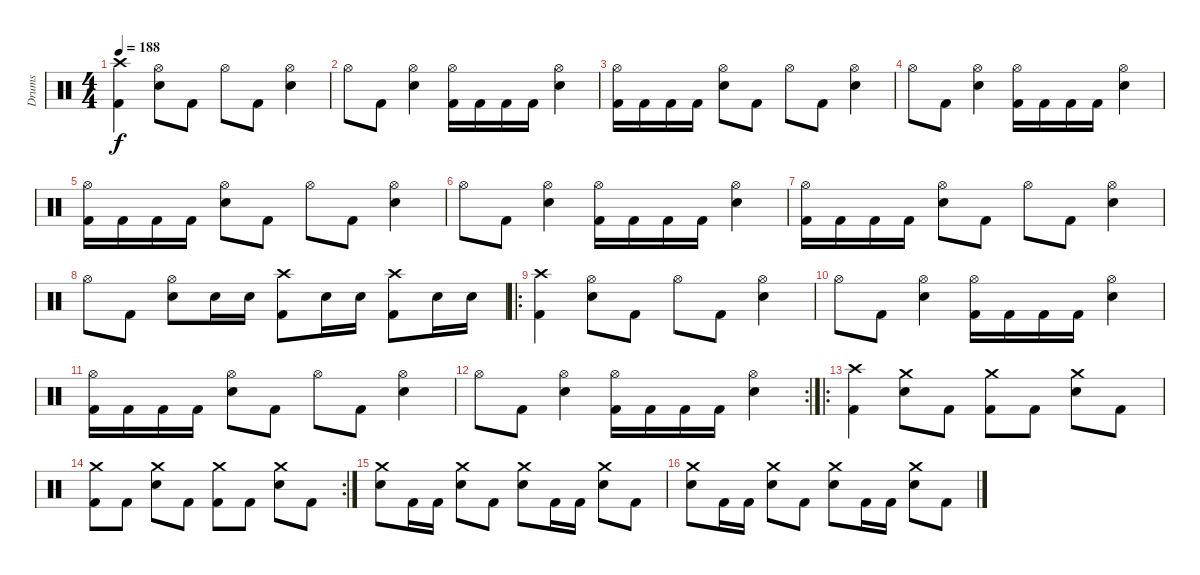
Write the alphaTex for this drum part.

\track ("Drums" "Drums") {instrument percussion}
\staff {score}
\articulation defaults
\ts (4 4)
\tempo 188
\clef neutral
\ks c
("Crash high (hit)" "Kick (hit) 2").4{dy f} ("Hi-Hat (open)" "Electric Snare (hit)").8 "Kick (hit) 2".8 "Hi-Hat (open)".8 "Kick (hit) 2".8 ("Hi-Hat (open)" "Electric Snare (hit)").4 |
"Hi-Hat (open)".8 "Kick (hit) 2".8 ("Hi-Hat (open)" "Electric Snare (hit)").4 ("Hi-Hat (open)" "Kick (hit) 2").16 "Kick (hit) 2".16 "Kick (hit) 2".16 "Kick (hit) 2".16 ("Hi-Hat (open)" "Electric Snare (hit)").4 |
("Hi-Hat (open)" "Kick (hit) 2").16 "Kick (hit) 2".16 "Kick (hit) 2".16 "Kick (hit) 2".16 ("Hi-Hat (open)" "Electric Snare (hit)").8 "Kick (hit) 2".8 "Hi-Hat (open)".8 "Kick (hit) 2".8 ("Hi-Hat (open)" "Electric Snare (hit)").4 |
"Hi-Hat (open)".8 "Kick (hit) 2".8 ("Hi-Hat (open)" "Electric Snare (hit)").4 ("Hi-Hat (open)" "Kick (hit) 2").16 "Kick (hit) 2".16 "Kick (hit) 2".16 "Kick (hit) 2".16 ("Hi-Hat (open)" "Electric Snare (hit)").4 |
("Hi-Hat (open)" "Kick (hit) 2").16 "Kick (hit) 2".16 "Kick (hit) 2".16 "Kick (hit) 2".16 ("Hi-Hat (open)" "Electric Snare (hit)").8 "Kick (hit) 2".8 "Hi-Hat (open)".8 "Kick (hit) 2".8 ("Hi-Hat (open)" "Electric Snare (hit)").4 |
"Hi-Hat (open)".8 "Kick (hit) 2".8 ("Hi-Hat (open)" "Electric Snare (hit)").4 ("Hi-Hat (open)" "Kick (hit) 2").16 "Kick (hit) 2".16 "Kick (hit) 2".16 "Kick (hit) 2".16 ("Hi-Hat (open)" "Electric Snare (hit)").4 |
("Hi-Hat (open)" "Kick (hit) 2").16 "Kick (hit) 2".16 "Kick (hit) 2".16 "Kick (hit) 2".16 ("Hi-Hat (open)" "Electric Snare (hit)").8 "Kick (hit) 2".8 "Hi-Hat (open)".8 "Kick (hit) 2".8 ("Hi-Hat (open)" "Electric Snare (hit)").4 |
"Hi-Hat (open)".8 "Kick (hit) 2".8 ("Hi-Hat (open)" "Electric Snare (hit)").8 "Electric Snare (hit)".16 "Electric Snare (hit)".16 ("Crash high (hit)" "Kick (hit) 2").8 "Electric Snare (hit)".16 "Electric Snare (hit)".16 ("Crash high (hit)" "Kick (hit) 2").8 "Electric Snare (hit)".16 "Electric Snare (hit)".16 |
\ro
("Crash high (hit)" "Kick (hit) 2").4 ("Hi-Hat (open)" "Electric Snare (hit)").8 "Kick (hit) 2".8 "Hi-Hat (open)".8 "Kick (hit) 2".8 ("Hi-Hat (open)" "Electric Snare (hit)").4 |
"Hi-Hat (open)".8 "Kick (hit) 2".8 ("Hi-Hat (open)" "Electric Snare (hit)").4 ("Hi-Hat (open)" "Kick (hit) 2").16 "Kick (hit) 2".16 "Kick (hit) 2".16 "Kick (hit) 2".16 ("Hi-Hat (open)" "Electric Snare (hit)").4 |
("Hi-Hat (open)" "Kick (hit) 2").16 "Kick (hit) 2".16 "Kick (hit) 2".16 "Kick (hit) 2".16 ("Hi-Hat (open)" "Electric Snare (hit)").8 "Kick (hit) 2".8 "Hi-Hat (open)".8 "Kick (hit) 2".8 ("Hi-Hat (open)" "Electric Snare (hit)").4 |
\rc 2 "Hi-Hat (open)".8 "Kick (hit) 2".8
("Hi-Hat (open)" "Electric Snare (hit)").4 ("Hi-Hat (open)" "Kick (hit) 2").16 "Kick (hit) 2".16 "Kick (hit) 2".16 "Kick (hit) 2".16 ("Hi-Hat (open)" "Electric Snare (hit)").4 |
\ro
("Crash high (hit)" "Kick (hit) 2").4 ("Crash medium (hit)" "Electric Snare (hit)").8 "Kick (hit) 2".8 ("Crash medium (hit)" "Kick (hit) 2").8 "Kick (hit) 2".8 ("Crash medium (hit)" "Electric Snare (hit)").8 "Kick (hit) 2".8 |
\rc 2
("Crash medium (hit)" "Kick (hit) 2").8 "Kick (hit) 2".8 ("Crash medium (hit)" "Electric Snare (hit)").8 "Kick (hit) 2".8 ("Crash medium (hit)" "Kick (hit) 2").8 "Kick (hit) 2".8 ("Crash medium (hit)" "Electric Snare (hit)").8 "Kick (hit) 2".8 |
("Crash medium (hit)" "Electric Snare (hit)").8 "Kick (hit) 2".16 "Kick (hit) 2".16 ("Crash medium (hit)" "Electric Snare (hit)").8 "Kick (hit) 2".8 ("Crash medium (hit)" "Electric Snare (hit)").8 "Kick (hit) 2".16 "Kick (hit) 2".16 ("Crash medium (hit)" "Electric Snare (hit)").8 "Kick (hit) 2".8 |
("Crash medium (hit)" "Electric Snare (hit)").8 "Kick (hit) 2".16 "Kick (hit) 2".16 ("Crash medium (hit)" "Electric Snare (hit)").8 "Kick (hit) 2".8 ("Crash medium (hit)" "Electric Snare (hit)").8 "Kick (hit) 2".16 "Kick (hit) 2".16 ("Crash medium (hit)" "Electric Snare (hit)").8 "Kick (hit) 2".8
